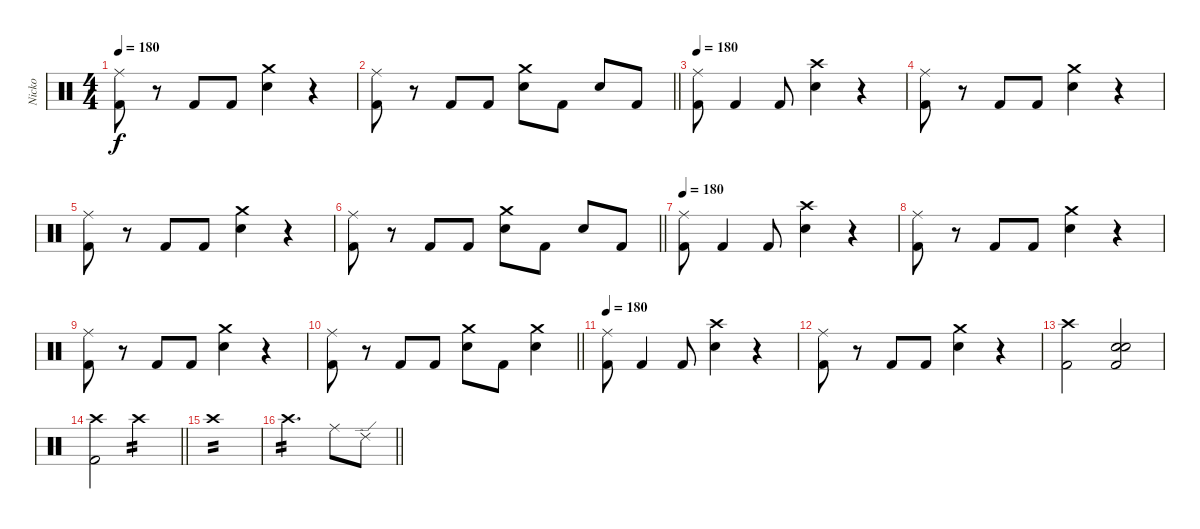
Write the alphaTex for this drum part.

\track ("Nicko" "Nicko") {instrument percussion}
\staff {score}
\articulation defaults
\ts (4 4)
\tempo 180
\clef neutral
\ks c
("Ride (middle)" "Kick (hit) 2").8{dy f} r.8 "Kick (hit) 2".8 "Kick (hit) 2".8 ("Crash medium (hit)" "Snare (hit) 2").4 r.4 |
\barLineRight lightlight
("Ride (middle)" "Kick (hit) 2").8 r.8 "Kick (hit) 2".8 "Kick (hit) 2".8 ("Crash medium (hit)" "Snare (hit) 2").8 "Kick (hit) 2".8 "Snare (hit) 2".8 "Kick (hit) 2".8 |
\tempo 180
("Ride (middle)" "Kick (hit) 2").8 "Kick (hit) 2".4 "Kick (hit) 2".8 ("Crash high (hit)" "Snare (hit) 2").4 r.4 |
("Ride (middle)" "Kick (hit) 2").8 r.8 "Kick (hit) 2".8 "Kick (hit) 2".8 ("Crash medium (hit)" "Snare (hit) 2").4 r.4 |
("Ride (middle)" "Kick (hit) 2").8 r.8 "Kick (hit) 2".8 "Kick (hit) 2".8 ("Crash medium (hit)" "Snare (hit) 2").4 r.4 |
\barLineRight lightlight
("Ride (middle)" "Kick (hit) 2").8 r.8 "Kick (hit) 2".8 "Kick (hit) 2".8 ("Crash medium (hit)" "Snare (hit) 2").8 "Kick (hit) 2".8 "Snare (hit) 2".8 "Kick (hit) 2".8 |
\tempo 180
("Ride (middle)" "Kick (hit) 2").8 "Kick (hit) 2".4 "Kick (hit) 2".8 ("Crash high (hit)" "Snare (hit) 2").4 r.4 |
("Ride (middle)" "Kick (hit) 2").8 r.8 "Kick (hit) 2".8 "Kick (hit) 2".8 ("Crash medium (hit)" "Snare (hit) 2").4 r.4 |
("Ride (middle)" "Kick (hit) 2").8 r.8 "Kick (hit) 2".8 "Kick (hit) 2".8 ("Crash medium (hit)" "Snare (hit) 2").4 r.4 |
\barLineRight lightlight
("Ride (middle)" "Kick (hit) 2").8 r.8 "Kick (hit) 2".8 "Kick (hit) 2".8 ("Crash medium (hit)" "Snare (hit) 2").8 "Kick (hit) 2".8 ("Crash medium (hit)" "Snare (hit) 2").4 |
\tempo 180
("Ride (middle)" "Kick (hit) 2").8 "Kick (hit) 2".4 "Kick (hit) 2".8 ("Crash high (hit)" "Snare (hit) 2").4 r.4 |
("Ride (middle)" "Kick (hit) 2").8 r.8 "Kick (hit) 2".8 "Kick (hit) 2".8 ("Crash medium (hit)" "Snare (hit) 2").4 r.4 |
("Crash high (hit)" "Kick (hit) 2").2 ("Electric Snare (hit)" "Electric Snare (hit)" "Kick (hit) 2").2{bd 240} |
\barLineRight lightlight
("Crash high (hit)" "Kick (hit) 2").2 "Crash high (hit)".2{tp 2} |
"Crash high (hit)".1{tp 2} |
\barLineRight lightlight "Crash high (hit)".2{d tp 2} "Ride (middle)".8 "Ride (edge) 2".8
